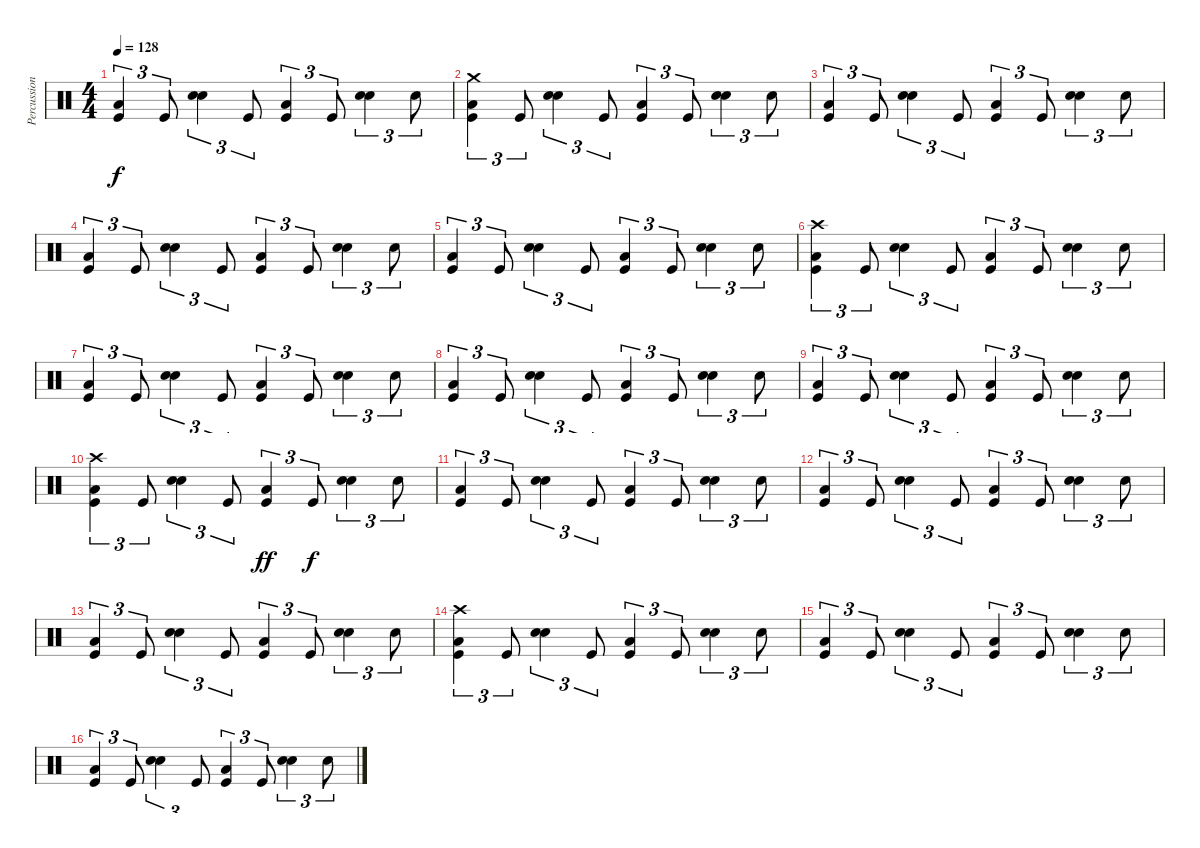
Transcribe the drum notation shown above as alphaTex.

\track ("Percussion" "Percussion") {instrument percussion}
\staff {score}
\articulation defaults
\ts (4 4)
\tempo 128
\clef neutral
\ks c
("Low Floor Tom (hit)" "Kick (hit)").4{tu (3 2) dy f} "Kick (hit)".8{tu (3 2)} ("Hand Clap (hit)" "Electric Snare (hit)").4{tu (3 2)} "Kick (hit)".8{tu (3 2)} ("Low Floor Tom (hit)" "Kick (hit)").4{tu (3 2)} "Kick (hit)".8{tu (3 2)} ("Hand Clap (hit)" "Electric Snare (hit)").4{tu (3 2)} "Hand Clap (hit)".8{tu (3 2)} |
("Crash medium (hit)" "Low Floor Tom (hit)" "Kick (hit)").4{tu (3 2)} "Kick (hit)".8{tu (3 2)} ("Hand Clap (hit)" "Electric Snare (hit)").4{tu (3 2)} "Kick (hit)".8{tu (3 2)} ("Low Floor Tom (hit)" "Kick (hit)").4{tu (3 2)} "Kick (hit)".8{tu (3 2)} ("Hand Clap (hit)" "Electric Snare (hit)").4{tu (3 2)} "Hand Clap (hit)".8{tu (3 2)} |
("Low Floor Tom (hit)" "Kick (hit)").4{tu (3 2)} "Kick (hit)".8{tu (3 2)} ("Hand Clap (hit)" "Electric Snare (hit)").4{tu (3 2)} "Kick (hit)".8{tu (3 2)} ("Low Floor Tom (hit)" "Kick (hit)").4{tu (3 2)} "Kick (hit)".8{tu (3 2)} ("Hand Clap (hit)" "Electric Snare (hit)").4{tu (3 2)} "Hand Clap (hit)".8{tu (3 2)} |
("Low Floor Tom (hit)" "Kick (hit)").4{tu (3 2)} "Kick (hit)".8{tu (3 2)} ("Hand Clap (hit)" "Electric Snare (hit)").4{tu (3 2)} "Kick (hit)".8{tu (3 2)} ("Low Floor Tom (hit)" "Kick (hit)").4{tu (3 2)} "Kick (hit)".8{tu (3 2)} ("Hand Clap (hit)" "Electric Snare (hit)").4{tu (3 2)} "Hand Clap (hit)".8{tu (3 2)} |
("Low Floor Tom (hit)" "Kick (hit)").4{tu (3 2)} "Kick (hit)".8{tu (3 2)} ("Hand Clap (hit)" "Electric Snare (hit)").4{tu (3 2)} "Kick (hit)".8{tu (3 2)} ("Low Floor Tom (hit)" "Kick (hit)").4{tu (3 2)} "Kick (hit)".8{tu (3 2)} ("Hand Clap (hit)" "Electric Snare (hit)").4{tu (3 2)} "Hand Clap (hit)".8{tu (3 2)} |
("Crash high (hit)" "Low Floor Tom (hit)" "Kick (hit)").4{tu (3 2)} "Kick (hit)".8{tu (3 2)} ("Hand Clap (hit)" "Electric Snare (hit)").4{tu (3 2)} "Kick (hit)".8{tu (3 2)} ("Low Floor Tom (hit)" "Kick (hit)").4{tu (3 2)} "Kick (hit)".8{tu (3 2)} ("Hand Clap (hit)" "Electric Snare (hit)").4{tu (3 2)} "Hand Clap (hit)".8{tu (3 2)} |
("Low Floor Tom (hit)" "Kick (hit)").4{tu (3 2)} "Kick (hit)".8{tu (3 2)} ("Hand Clap (hit)" "Electric Snare (hit)").4{tu (3 2)} "Kick (hit)".8{tu (3 2)} ("Low Floor Tom (hit)" "Kick (hit)").4{tu (3 2)} "Kick (hit)".8{tu (3 2)} ("Hand Clap (hit)" "Electric Snare (hit)").4{tu (3 2)} "Hand Clap (hit)".8{tu (3 2)} |
("Low Floor Tom (hit)" "Kick (hit)").4{tu (3 2)} "Kick (hit)".8{tu (3 2)} ("Hand Clap (hit)" "Electric Snare (hit)").4{tu (3 2)} "Kick (hit)".8{tu (3 2)} ("Low Floor Tom (hit)" "Kick (hit)").4{tu (3 2)} "Kick (hit)".8{tu (3 2)} ("Hand Clap (hit)" "Electric Snare (hit)").4{tu (3 2)} "Hand Clap (hit)".8{tu (3 2)} |
("Low Floor Tom (hit)" "Kick (hit)").4{tu (3 2)} "Kick (hit)".8{tu (3 2)} ("Hand Clap (hit)" "Electric Snare (hit)").4{tu (3 2)} "Kick (hit)".8{tu (3 2)} ("Low Floor Tom (hit)" "Kick (hit)").4{tu (3 2)} "Kick (hit)".8{tu (3 2)} ("Hand Clap (hit)" "Electric Snare (hit)").4{tu (3 2)} "Hand Clap (hit)".8{tu (3 2)} |
("Crash high (hit)" "Low Floor Tom (hit)" "Kick (hit)").4{tu (3 2)} "Kick (hit)".8{tu (3 2)} ("Hand Clap (hit)" "Electric Snare (hit)").4{tu (3 2)} "Kick (hit)".8{tu (3 2)} ("Low Floor Tom (hit)" "Kick (hit)").4{tu (3 2) dy ff} "Kick (hit)".8{tu (3 2) dy f} ("Hand Clap (hit)" "Electric Snare (hit)").4{tu (3 2)} "Hand Clap (hit)".8{tu (3 2)} |
("Low Floor Tom (hit)" "Kick (hit)").4{tu (3 2)} "Kick (hit)".8{tu (3 2)} ("Hand Clap (hit)" "Electric Snare (hit)").4{tu (3 2)} "Kick (hit)".8{tu (3 2)} ("Low Floor Tom (hit)" "Kick (hit)").4{tu (3 2)} "Kick (hit)".8{tu (3 2)} ("Hand Clap (hit)" "Electric Snare (hit)").4{tu (3 2)} "Hand Clap (hit)".8{tu (3 2)} |
("Low Floor Tom (hit)" "Kick (hit)").4{tu (3 2)} "Kick (hit)".8{tu (3 2)} ("Hand Clap (hit)" "Electric Snare (hit)").4{tu (3 2)} "Kick (hit)".8{tu (3 2)} ("Low Floor Tom (hit)" "Kick (hit)").4{tu (3 2)} "Kick (hit)".8{tu (3 2)} ("Hand Clap (hit)" "Electric Snare (hit)").4{tu (3 2)} "Hand Clap (hit)".8{tu (3 2)} |
("Low Floor Tom (hit)" "Kick (hit)").4{tu (3 2)} "Kick (hit)".8{tu (3 2)} ("Hand Clap (hit)" "Electric Snare (hit)").4{tu (3 2)} "Kick (hit)".8{tu (3 2)} ("Low Floor Tom (hit)" "Kick (hit)").4{tu (3 2)} "Kick (hit)".8{tu (3 2)} ("Hand Clap (hit)" "Electric Snare (hit)").4{tu (3 2)} "Hand Clap (hit)".8{tu (3 2)} |
("Crash high (hit)" "Low Floor Tom (hit)" "Kick (hit)").4{tu (3 2)} "Kick (hit)".8{tu (3 2)} ("Hand Clap (hit)" "Electric Snare (hit)").4{tu (3 2)} "Kick (hit)".8{tu (3 2)} ("Low Floor Tom (hit)" "Kick (hit)").4{tu (3 2)} "Kick (hit)".8{tu (3 2)} ("Hand Clap (hit)" "Electric Snare (hit)").4{tu (3 2)} "Hand Clap (hit)".8{tu (3 2)} |
("Low Floor Tom (hit)" "Kick (hit)").4{tu (3 2)} "Kick (hit)".8{tu (3 2)} ("Hand Clap (hit)" "Electric Snare (hit)").4{tu (3 2)} "Kick (hit)".8{tu (3 2)} ("Low Floor Tom (hit)" "Kick (hit)").4{tu (3 2)} "Kick (hit)".8{tu (3 2)} ("Hand Clap (hit)" "Electric Snare (hit)").4{tu (3 2)} "Hand Clap (hit)".8{tu (3 2)} |
("Low Floor Tom (hit)" "Kick (hit)").4{tu (3 2)} "Kick (hit)".8{tu (3 2)} ("Hand Clap (hit)" "Electric Snare (hit)").4{tu (3 2)} "Kick (hit)".8{tu (3 2)} ("Low Floor Tom (hit)" "Kick (hit)").4{tu (3 2)} "Kick (hit)".8{tu (3 2)} ("Hand Clap (hit)" "Electric Snare (hit)").4{tu (3 2)} "Hand Clap (hit)".8{tu (3 2)}
